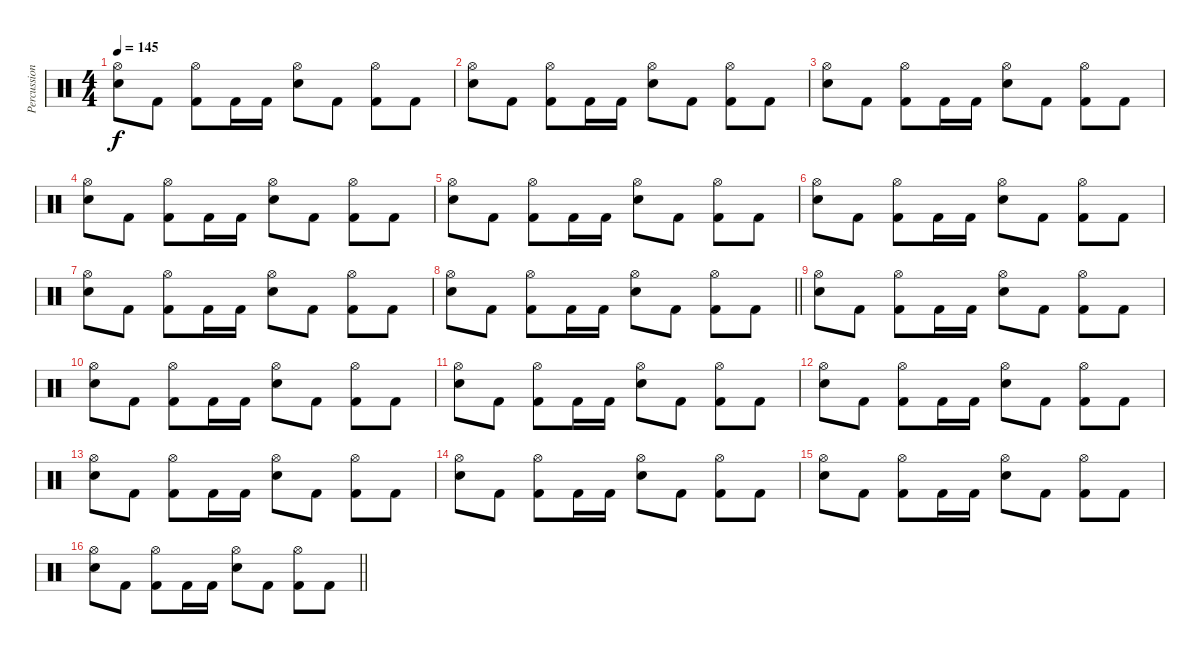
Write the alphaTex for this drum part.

\track ("Percussion" "Percussion") {instrument percussion}
\staff {score}
\articulation defaults
\ts (4 4)
\tempo 145
\clef neutral
\ks c
("Hi-Hat (open)" "Electric Snare (hit)").8{dy f} "Kick (hit) 2".8 ("Hi-Hat (open)" "Kick (hit) 2").8 "Kick (hit) 2".16 "Kick (hit) 2".16 ("Hi-Hat (open)" "Electric Snare (hit)").8 "Kick (hit) 2".8 ("Hi-Hat (open)" "Kick (hit) 2").8 "Kick (hit) 2".8 |
("Hi-Hat (open)" "Electric Snare (hit)").8 "Kick (hit) 2".8 ("Hi-Hat (open)" "Kick (hit) 2").8 "Kick (hit) 2".16 "Kick (hit) 2".16 ("Hi-Hat (open)" "Electric Snare (hit)").8 "Kick (hit) 2".8 ("Hi-Hat (open)" "Kick (hit) 2").8 "Kick (hit) 2".8 |
("Hi-Hat (open)" "Electric Snare (hit)").8 "Kick (hit) 2".8 ("Hi-Hat (open)" "Kick (hit) 2").8 "Kick (hit) 2".16 "Kick (hit) 2".16 ("Hi-Hat (open)" "Electric Snare (hit)").8 "Kick (hit) 2".8 ("Hi-Hat (open)" "Kick (hit) 2").8 "Kick (hit) 2".8 |
("Hi-Hat (open)" "Electric Snare (hit)").8 "Kick (hit) 2".8 ("Hi-Hat (open)" "Kick (hit) 2").8 "Kick (hit) 2".16 "Kick (hit) 2".16 ("Hi-Hat (open)" "Electric Snare (hit)").8 "Kick (hit) 2".8 ("Hi-Hat (open)" "Kick (hit) 2").8 "Kick (hit) 2".8 |
("Hi-Hat (open)" "Electric Snare (hit)").8 "Kick (hit) 2".8 ("Hi-Hat (open)" "Kick (hit) 2").8 "Kick (hit) 2".16 "Kick (hit) 2".16 ("Hi-Hat (open)" "Electric Snare (hit)").8 "Kick (hit) 2".8 ("Hi-Hat (open)" "Kick (hit) 2").8 "Kick (hit) 2".8 |
("Hi-Hat (open)" "Electric Snare (hit)").8 "Kick (hit) 2".8 ("Hi-Hat (open)" "Kick (hit) 2").8 "Kick (hit) 2".16 "Kick (hit) 2".16 ("Hi-Hat (open)" "Electric Snare (hit)").8 "Kick (hit) 2".8 ("Hi-Hat (open)" "Kick (hit) 2").8 "Kick (hit) 2".8 |
("Hi-Hat (open)" "Electric Snare (hit)").8 "Kick (hit) 2".8 ("Hi-Hat (open)" "Kick (hit) 2").8 "Kick (hit) 2".16 "Kick (hit) 2".16 ("Hi-Hat (open)" "Electric Snare (hit)").8 "Kick (hit) 2".8 ("Hi-Hat (open)" "Kick (hit) 2").8 "Kick (hit) 2".8 |
\barLineRight lightlight
("Hi-Hat (open)" "Electric Snare (hit)").8 "Kick (hit) 2".8 ("Hi-Hat (open)" "Kick (hit) 2").8 "Kick (hit) 2".16 "Kick (hit) 2".16 ("Hi-Hat (open)" "Electric Snare (hit)").8 "Kick (hit) 2".8 ("Hi-Hat (open)" "Kick (hit) 2").8 "Kick (hit) 2".8 |
("Hi-Hat (open)" "Electric Snare (hit)").8 "Kick (hit) 2".8 ("Hi-Hat (open)" "Kick (hit) 2").8 "Kick (hit) 2".16 "Kick (hit) 2".16 ("Hi-Hat (open)" "Electric Snare (hit)").8 "Kick (hit) 2".8 ("Hi-Hat (open)" "Kick (hit) 2").8 "Kick (hit) 2".8 |
("Hi-Hat (open)" "Electric Snare (hit)").8 "Kick (hit) 2".8 ("Hi-Hat (open)" "Kick (hit) 2").8 "Kick (hit) 2".16 "Kick (hit) 2".16 ("Hi-Hat (open)" "Electric Snare (hit)").8 "Kick (hit) 2".8 ("Hi-Hat (open)" "Kick (hit) 2").8 "Kick (hit) 2".8 |
("Hi-Hat (open)" "Electric Snare (hit)").8 "Kick (hit) 2".8 ("Hi-Hat (open)" "Kick (hit) 2").8 "Kick (hit) 2".16 "Kick (hit) 2".16 ("Hi-Hat (open)" "Electric Snare (hit)").8 "Kick (hit) 2".8 ("Hi-Hat (open)" "Kick (hit) 2").8 "Kick (hit) 2".8 |
("Hi-Hat (open)" "Electric Snare (hit)").8 "Kick (hit) 2".8 ("Hi-Hat (open)" "Kick (hit) 2").8 "Kick (hit) 2".16 "Kick (hit) 2".16 ("Hi-Hat (open)" "Electric Snare (hit)").8 "Kick (hit) 2".8 ("Hi-Hat (open)" "Kick (hit) 2").8 "Kick (hit) 2".8 |
("Hi-Hat (open)" "Electric Snare (hit)").8 "Kick (hit) 2".8 ("Hi-Hat (open)" "Kick (hit) 2").8 "Kick (hit) 2".16 "Kick (hit) 2".16 ("Hi-Hat (open)" "Electric Snare (hit)").8 "Kick (hit) 2".8 ("Hi-Hat (open)" "Kick (hit) 2").8 "Kick (hit) 2".8 |
("Hi-Hat (open)" "Electric Snare (hit)").8 "Kick (hit) 2".8 ("Hi-Hat (open)" "Kick (hit) 2").8 "Kick (hit) 2".16 "Kick (hit) 2".16 ("Hi-Hat (open)" "Electric Snare (hit)").8 "Kick (hit) 2".8 ("Hi-Hat (open)" "Kick (hit) 2").8 "Kick (hit) 2".8 |
("Hi-Hat (open)" "Electric Snare (hit)").8 "Kick (hit) 2".8 ("Hi-Hat (open)" "Kick (hit) 2").8 "Kick (hit) 2".16 "Kick (hit) 2".16 ("Hi-Hat (open)" "Electric Snare (hit)").8 "Kick (hit) 2".8 ("Hi-Hat (open)" "Kick (hit) 2").8 "Kick (hit) 2".8 |
\barLineRight lightlight
("Hi-Hat (open)" "Electric Snare (hit)").8 "Kick (hit) 2".8 ("Hi-Hat (open)" "Kick (hit) 2").8 "Kick (hit) 2".16 "Kick (hit) 2".16 ("Hi-Hat (open)" "Electric Snare (hit)").8 "Kick (hit) 2".8 ("Hi-Hat (open)" "Kick (hit) 2").8 "Kick (hit) 2".8
